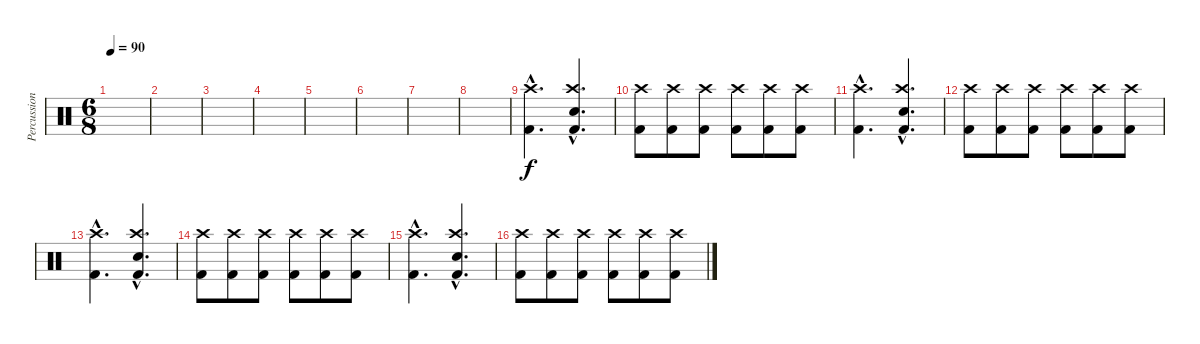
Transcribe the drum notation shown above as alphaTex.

\track ("Percussion" "Percussion") {instrument percussion}
\staff {score}
\articulation defaults
\ts (6 8)
\tempo 90
\clef neutral
\ks c
|
|
|
|
|
|
|
|
("Kick (hit) 2"{hac} "Crash high (hit)"{hac}).4{d} ("Kick (hit) 2"{hac} "Snare (hit) 2"{hac} "Crash high (hit)"{hac}).4{d} |
("Kick (hit) 2" "Crash high (hit)").8 ("Kick (hit) 2" "Crash high (hit)").8 ("Kick (hit) 2" "Crash high (hit)").8 ("Kick (hit) 2" "Crash high (hit)").8 ("Kick (hit) 2" "Crash high (hit)").8 ("Kick (hit) 2" "Crash high (hit)").8 |
("Kick (hit) 2"{hac} "Crash high (hit)"{hac}).4{d} ("Kick (hit) 2"{hac} "Snare (hit) 2"{hac} "Crash high (hit)"{hac}).4{d} |
("Kick (hit) 2" "Crash high (hit)").8 ("Kick (hit) 2" "Crash high (hit)").8 ("Kick (hit) 2" "Crash high (hit)").8 ("Kick (hit) 2" "Crash high (hit)").8 ("Kick (hit) 2" "Crash high (hit)").8 ("Kick (hit) 2" "Crash high (hit)").8 |
("Kick (hit) 2"{hac} "Crash high (hit)"{hac}).4{d} ("Kick (hit) 2"{hac} "Snare (hit) 2"{hac} "Crash high (hit)"{hac}).4{d} |
("Kick (hit) 2" "Crash high (hit)").8 ("Kick (hit) 2" "Crash high (hit)").8 ("Kick (hit) 2" "Crash high (hit)").8 ("Kick (hit) 2" "Crash high (hit)").8 ("Kick (hit) 2" "Crash high (hit)").8 ("Kick (hit) 2" "Crash high (hit)").8 |
("Kick (hit) 2"{hac} "Crash high (hit)"{hac}).4{d} ("Kick (hit) 2"{hac} "Snare (hit) 2"{hac} "Crash high (hit)"{hac}).4{d} |
("Kick (hit) 2" "Crash high (hit)").8 ("Kick (hit) 2" "Crash high (hit)").8 ("Kick (hit) 2" "Crash high (hit)").8 ("Kick (hit) 2" "Crash high (hit)").8 ("Kick (hit) 2" "Crash high (hit)").8 ("Kick (hit) 2" "Crash high (hit)").8
